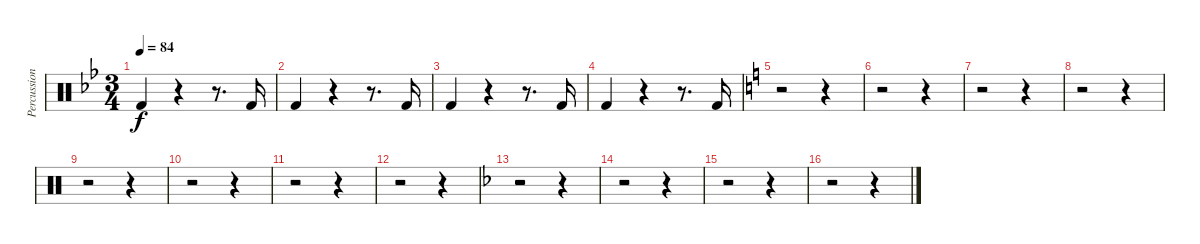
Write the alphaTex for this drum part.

\track ("Percussion" "Percussion") {instrument percussion}
\staff {score}
\articulation defaults
\ts (3 4)
\tempo 84
\clef neutral
\ks gminor "Kick (hit) 2".4{dy f}
r.4 r.8{d} "Kick (hit) 2".16 |
"Kick (hit) 2".4 r.4 r.8{d} "Kick (hit) 2".16 |
"Kick (hit) 2".4 r.4 r.8{d} "Kick (hit) 2".16 |
"Kick (hit) 2".4 r.4 r.8{d} "Kick (hit) 2".16 |
\ks aminor
r.2 r.4 |
r.2 r.4 |
r.2 r.4 |
r.2 r.4 |
r.2 r.4 |
r.2 r.4 |
r.2 r.4 |
r.2 r.4 |
\ks dminor
r.2 r.4 |
r.2 r.4 |
r.2 r.4 |
r.2 r.4
